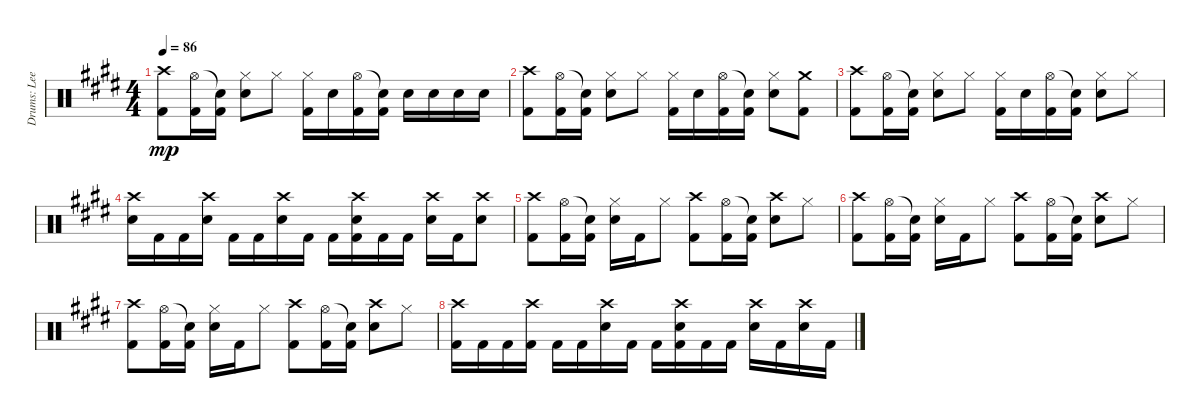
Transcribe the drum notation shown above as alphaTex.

\track ("Drums: Lee" "Drums: Lee") {instrument percussion}
\staff {score}
\articulation defaults
\ts (4 4)
\tempo 86
\clef neutral
\ks c#minor
("Crash high (hit)" "Kick (hit) 2").8{dy mp} ("Hi-Hat (open)" "Kick (hit) 2").16 ("Snare (hit)"{t} "Kick (hit) 2").16 ("Hi-Hat (closed)" "Snare (hit) 2").8 "Hi-Hat (closed)".8 ("Hi-Hat (closed)" "Kick (hit) 2").16 "Snare (hit) 2".16 ("Hi-Hat (open)" "Kick (hit) 2").16 ("Snare (hit)"{t} "Kick (hit) 2").16 "Snare (hit) 2".16 "Snare (hit) 2".16 "Snare (hit) 2".16 "Snare (hit) 2".16 |
("Crash high (hit)" "Kick (hit) 2").8 ("Hi-Hat (open)" "Kick (hit) 2").16 ("Snare (hit)"{t} "Kick (hit) 2").16 ("Hi-Hat (closed)" "Snare (hit) 2").8 "Hi-Hat (closed)".8 ("Hi-Hat (closed)" "Kick (hit) 2").16 "Snare (hit) 2".16 ("Hi-Hat (open)" "Kick (hit) 2").16 ("Snare (hit)"{t} "Kick (hit) 2").16 ("Hi-Hat (closed)" "Snare (hit) 2").8 ("Crash medium (hit)" "Kick (hit) 2").8 |
("Crash high (hit)" "Kick (hit) 2").8 ("Hi-Hat (open)" "Kick (hit) 2").16 ("Snare (hit)"{t} "Kick (hit) 2").16 ("Hi-Hat (closed)" "Snare (hit) 2").8 "Hi-Hat (closed)".8 ("Hi-Hat (closed)" "Kick (hit) 2").16 "Snare (hit) 2".16 ("Hi-Hat (open)" "Kick (hit) 2").16 ("Snare (hit)"{t} "Kick (hit) 2").16 ("Hi-Hat (closed)" "Snare (hit) 2").8 "Hi-Hat (closed)".8 |
("Crash high (hit)" "Snare (hit) 2").16 "Kick (hit) 2".16 "Kick (hit) 2".16 ("Crash high (hit)" "Snare (hit) 2").16 "Kick (hit) 2".16 "Kick (hit) 2".16 ("Crash high (hit)" "Snare (hit) 2").16 "Kick (hit) 2".16 "Kick (hit) 2".16 ("Crash high (hit)" "Snare (hit) 2" "Kick (hit) 2").16 "Kick (hit) 2".16 "Kick (hit) 2".16 ("Crash high (hit)" "Snare (hit) 2").16 "Kick (hit) 2".16 ("Crash high (hit)" "Snare (hit) 2").8 |
("Crash high (hit)" "Kick (hit) 2").8 ("Hi-Hat (open)" "Kick (hit) 2").16 ("Snare (hit)"{t} "Kick (hit) 2").16 ("Hi-Hat (closed)" "Snare (hit) 2").16 "Kick (hit) 2".16 "Hi-Hat (closed)".8 ("Crash high (hit)" "Kick (hit) 2").8 ("Hi-Hat (open)" "Kick (hit) 2").16 ("Snare (hit)"{t} "Kick (hit) 2").16 ("Crash high (hit)" "Snare (hit) 2").8 "Hi-Hat (closed)".8 |
("Crash high (hit)" "Kick (hit) 2").8 ("Hi-Hat (open)" "Kick (hit) 2").16 ("Snare (hit)"{t} "Kick (hit) 2").16 ("Hi-Hat (closed)" "Snare (hit) 2").16 "Kick (hit) 2".16 "Hi-Hat (closed)".8 ("Crash high (hit)" "Kick (hit) 2").8 ("Hi-Hat (open)" "Kick (hit) 2").16 ("Snare (hit)"{t} "Kick (hit) 2").16 ("Crash high (hit)" "Snare (hit) 2").8 "Hi-Hat (closed)".8 |
("Crash high (hit)" "Kick (hit) 2").8 ("Hi-Hat (open)" "Kick (hit) 2").16 ("Snare (hit)"{t} "Kick (hit) 2").16 ("Hi-Hat (closed)" "Snare (hit) 2").16 "Kick (hit) 2".16 "Hi-Hat (closed)".8 ("Crash high (hit)" "Kick (hit) 2").8 ("Hi-Hat (open)" "Kick (hit) 2").16 ("Snare (hit)"{t} "Kick (hit) 2").16 ("Crash high (hit)" "Snare (hit) 2").8 "Hi-Hat (closed)".8 |
("Crash high (hit)" "Kick (hit) 2").16 "Kick (hit) 2".16 "Kick (hit) 2".16 ("Crash high (hit)" "Kick (hit) 2").16 "Kick (hit) 2".16 "Kick (hit) 2".16 ("Crash high (hit)" "Snare (hit) 2").16 "Kick (hit) 2".16 "Kick (hit) 2".16 ("Crash high (hit)" "Snare (hit) 2" "Kick (hit) 2").16 "Kick (hit) 2".16 "Kick (hit) 2".16 ("Crash high (hit)" "Snare (hit) 2").16 "Kick (hit) 2".16 ("Crash high (hit)" "Snare (hit) 2").16 "Kick (hit) 2".16
